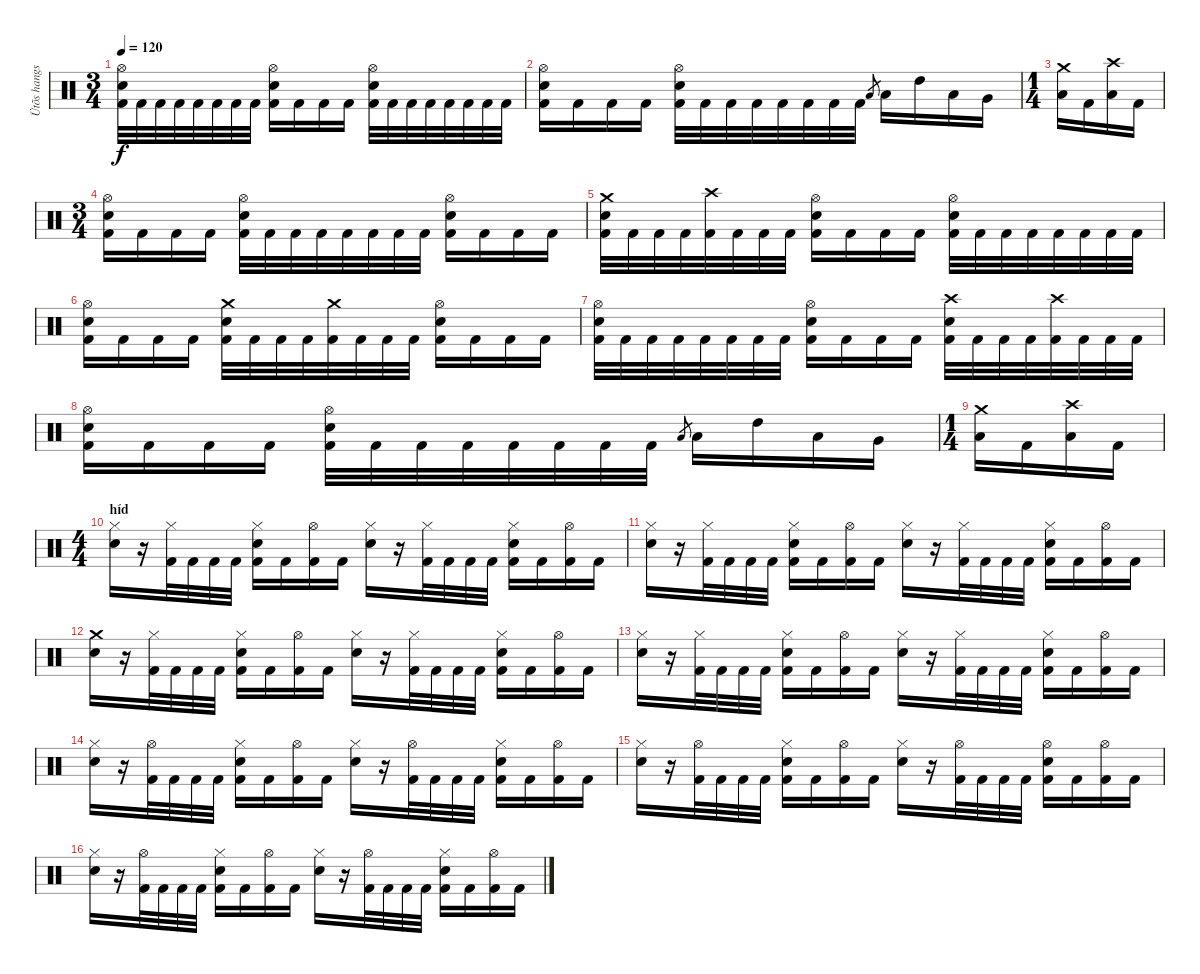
\track ("Ütõs hangszer" "Ütõs hangs") {instrument percussion}
\staff {score}
\articulation defaults
\ts (3 4)
\tempo 120
\clef neutral
\ks c
("Hi-Hat (open)" "Electric Snare (hit)" "Kick (hit) 2").32{dy f} "Kick (hit) 2".32 "Kick (hit) 2".32 "Kick (hit) 2".32 "Kick (hit) 2".32 "Kick (hit) 2".32 "Kick (hit) 2".32 "Kick (hit) 2".32 ("Hi-Hat (open)" "Electric Snare (hit)" "Kick (hit) 2").16 "Kick (hit) 2".16 "Kick (hit) 2".16 "Kick (hit) 2".16 ("Hi-Hat (open)" "Electric Snare (hit)" "Kick (hit) 2").32 "Kick (hit) 2".32 "Kick (hit) 2".32 "Kick (hit) 2".32 "Kick (hit) 2".32 "Kick (hit) 2".32 "Kick (hit) 2".32 "Kick (hit) 2".32 |
("Hi-Hat (open)" "Electric Snare (hit)" "Kick (hit) 2").16 "Kick (hit) 2".16 "Kick (hit) 2".16 "Kick (hit) 2".16 ("Hi-Hat (open)" "Electric Snare (hit)" "Kick (hit) 2").32 "Kick (hit) 2".32 "Kick (hit) 2".32 "Kick (hit) 2".32 "Kick (hit) 2".32 "Kick (hit) 2".32 "Kick (hit) 2".32 "Kick (hit) 2".32 "Low Tom (hit)".8{gr} "Low Tom (hit)".16 "High Tom (hit)".16 "Low Tom (hit)".16 "Very Low Tom (hit)".16 |
\ts (1 4)
("Crash medium (hit)" "Low Floor Tom (hit)").16 "Kick (hit) 2".16 ("Crash high (hit)" "Low Floor Tom (hit)").16 "Kick (hit) 2".16 |
\ts (3 4)
("Hi-Hat (open)" "Electric Snare (hit)" "Kick (hit) 2").16 "Kick (hit) 2".16 "Kick (hit) 2".16 "Kick (hit) 2".16 ("Hi-Hat (open)" "Electric Snare (hit)" "Kick (hit) 2").32 "Kick (hit) 2".32 "Kick (hit) 2".32 "Kick (hit) 2".32 "Kick (hit) 2".32 "Kick (hit) 2".32 "Kick (hit) 2".32 "Kick (hit) 2".32 ("Hi-Hat (open)" "Electric Snare (hit)" "Kick (hit) 2").16 "Kick (hit) 2".16 "Kick (hit) 2".16 "Kick (hit) 2".16 |
("Crash medium (hit)" "Electric Snare (hit)" "Kick (hit) 2").32 "Kick (hit) 2".32 "Kick (hit) 2".32 "Kick (hit) 2".32 ("Crash high (hit)" "Kick (hit) 2").32 "Kick (hit) 2".32 "Kick (hit) 2".32 "Kick (hit) 2".32 ("Hi-Hat (open)" "Electric Snare (hit)" "Kick (hit) 2").16 "Kick (hit) 2".16 "Kick (hit) 2".16 "Kick (hit) 2".16 ("Hi-Hat (open)" "Electric Snare (hit)" "Kick (hit) 2").32 "Kick (hit) 2".32 "Kick (hit) 2".32 "Kick (hit) 2".32 "Kick (hit) 2".32 "Kick (hit) 2".32 "Kick (hit) 2".32 "Kick (hit) 2".32 |
("Hi-Hat (open)" "Electric Snare (hit)" "Kick (hit) 2").16 "Kick (hit) 2".16 "Kick (hit) 2".16 "Kick (hit) 2".16 ("Crash medium (hit)" "Electric Snare (hit)" "Kick (hit) 2").32 "Kick (hit) 2".32 "Kick (hit) 2".32 "Kick (hit) 2".32 ("Crash medium (hit)" "Kick (hit) 2").32 "Kick (hit) 2".32 "Kick (hit) 2".32 "Kick (hit) 2".32 ("Hi-Hat (open)" "Electric Snare (hit)" "Kick (hit) 2").16 "Kick (hit) 2".16 "Kick (hit) 2".16 "Kick (hit) 2".16 |
("Hi-Hat (open)" "Electric Snare (hit)" "Kick (hit) 2").32 "Kick (hit) 2".32 "Kick (hit) 2".32 "Kick (hit) 2".32 "Kick (hit) 2".32 "Kick (hit) 2".32 "Kick (hit) 2".32 "Kick (hit) 2".32 ("Hi-Hat (open)" "Electric Snare (hit)" "Kick (hit) 2").16 "Kick (hit) 2".16 "Kick (hit) 2".16 "Kick (hit) 2".16 ("Crash high (hit)" "Electric Snare (hit)" "Kick (hit) 2").32 "Kick (hit) 2".32 "Kick (hit) 2".32 "Kick (hit) 2".32 ("Crash high (hit)" "Kick (hit) 2").32 "Kick (hit) 2".32 "Kick (hit) 2".32 "Kick (hit) 2".32 |
("Hi-Hat (open)" "Electric Snare (hit)" "Kick (hit) 2").16 "Kick (hit) 2".16 "Kick (hit) 2".16 "Kick (hit) 2".16 ("Hi-Hat (open)" "Electric Snare (hit)" "Kick (hit) 2").32 "Kick (hit) 2".32 "Kick (hit) 2".32 "Kick (hit) 2".32 "Kick (hit) 2".32 "Kick (hit) 2".32 "Kick (hit) 2".32 "Kick (hit) 2".32 "Low Tom (hit)".8{gr} "Low Tom (hit)".16 "High Tom (hit)".16 "Low Tom (hit)".16 "Very Low Tom (hit)".16 |
\ts (1 4)
("Crash medium (hit)" "Low Floor Tom (hit)").16 "Kick (hit) 2".16 ("Crash high (hit)" "Low Floor Tom (hit)").16 "Kick (hit) 2".16 |
\ts (4 4)
\section ("" "híd")
("Hi-Hat (closed)" "Electric Snare (hit)").16 r.16 ("Hi-Hat (closed)" "Kick (hit) 2").32 "Kick (hit) 2".32 "Kick (hit) 2".32 "Kick (hit) 2".32 ("Hi-Hat (closed)" "Electric Snare (hit)" "Kick (hit) 2").16 "Kick (hit) 2".16 ("Hi-Hat (open)" "Kick (hit) 2").16 "Kick (hit) 2".16 ("Hi-Hat (closed)" "Electric Snare (hit)").16 r.16 ("Hi-Hat (closed)" "Kick (hit) 2").32 "Kick (hit) 2".32 "Kick (hit) 2".32 "Kick (hit) 2".32 ("Hi-Hat (closed)" "Electric Snare (hit)" "Kick (hit) 2").16 "Kick (hit) 2".16 ("Hi-Hat (open)" "Kick (hit) 2").16 "Kick (hit) 2".16 |
("Hi-Hat (closed)" "Electric Snare (hit)").16 r.16 ("Hi-Hat (closed)" "Kick (hit) 2").32 "Kick (hit) 2".32 "Kick (hit) 2".32 "Kick (hit) 2".32 ("Hi-Hat (closed)" "Electric Snare (hit)" "Kick (hit) 2").16 "Kick (hit) 2".16 ("Hi-Hat (open)" "Kick (hit) 2").16 "Kick (hit) 2".16 ("Hi-Hat (closed)" "Electric Snare (hit)").16 r.16 ("Hi-Hat (closed)" "Kick (hit) 2").32 "Kick (hit) 2".32 "Kick (hit) 2".32 "Kick (hit) 2".32 ("Hi-Hat (closed)" "Electric Snare (hit)" "Kick (hit) 2").16 "Kick (hit) 2".16 ("Hi-Hat (open)" "Kick (hit) 2").16 "Kick (hit) 2".16 |
("Crash medium (hit)" "Electric Snare (hit)").16 r.16 ("Hi-Hat (closed)" "Kick (hit) 2").32 "Kick (hit) 2".32 "Kick (hit) 2".32 "Kick (hit) 2".32 ("Hi-Hat (closed)" "Electric Snare (hit)" "Kick (hit) 2").16 "Kick (hit) 2".16 ("Hi-Hat (open)" "Kick (hit) 2").16 "Kick (hit) 2".16 ("Hi-Hat (closed)" "Electric Snare (hit)").16 r.16 ("Hi-Hat (closed)" "Kick (hit) 2").32 "Kick (hit) 2".32 "Kick (hit) 2".32 "Kick (hit) 2".32 ("Hi-Hat (closed)" "Electric Snare (hit)" "Kick (hit) 2").16 "Kick (hit) 2".16 ("Hi-Hat (open)" "Kick (hit) 2").16 "Kick (hit) 2".16 |
("Hi-Hat (closed)" "Electric Snare (hit)").16 r.16 ("Hi-Hat (closed)" "Kick (hit) 2").32 "Kick (hit) 2".32 "Kick (hit) 2".32 "Kick (hit) 2".32 ("Hi-Hat (closed)" "Electric Snare (hit)" "Kick (hit) 2").16 "Kick (hit) 2".16 ("Hi-Hat (open)" "Kick (hit) 2").16 "Kick (hit) 2".16 ("Hi-Hat (closed)" "Electric Snare (hit)").16 r.16 ("Hi-Hat (closed)" "Kick (hit) 2").32 "Kick (hit) 2".32 "Kick (hit) 2".32 "Kick (hit) 2".32 ("Hi-Hat (closed)" "Electric Snare (hit)" "Kick (hit) 2").16 "Kick (hit) 2".16 ("Hi-Hat (open)" "Kick (hit) 2").16 "Kick (hit) 2".16 |
("Hi-Hat (closed)" "Electric Snare (hit)").16 r.16 ("Hi-Hat (open)" "Kick (hit) 2").32 "Kick (hit) 2".32 "Kick (hit) 2".32 "Kick (hit) 2".32 ("Hi-Hat (closed)" "Electric Snare (hit)" "Kick (hit) 2").16 "Kick (hit) 2".16 ("Hi-Hat (open)" "Kick (hit) 2").16 "Kick (hit) 2".16 ("Hi-Hat (closed)" "Electric Snare (hit)").16 r.16 ("Hi-Hat (open)" "Kick (hit) 2").32 "Kick (hit) 2".32 "Kick (hit) 2".32 "Kick (hit) 2".32 ("Hi-Hat (closed)" "Electric Snare (hit)" "Kick (hit) 2").16 "Kick (hit) 2".16 ("Hi-Hat (open)" "Kick (hit) 2").16 "Kick (hit) 2".16 |
("Hi-Hat (closed)" "Electric Snare (hit)").16 r.16 ("Hi-Hat (open)" "Kick (hit) 2").32 "Kick (hit) 2".32 "Kick (hit) 2".32 "Kick (hit) 2".32 ("Hi-Hat (closed)" "Electric Snare (hit)" "Kick (hit) 2").16 "Kick (hit) 2".16 ("Hi-Hat (open)" "Kick (hit) 2").16 "Kick (hit) 2".16 ("Hi-Hat (closed)" "Electric Snare (hit)").16 r.16 ("Hi-Hat (open)" "Kick (hit) 2").32 "Kick (hit) 2".32 "Kick (hit) 2".32 "Kick (hit) 2".32 ("Hi-Hat (open)" "Electric Snare (hit)" "Kick (hit) 2").16 "Kick (hit) 2".16 ("Hi-Hat (open)" "Kick (hit) 2").16 "Kick (hit) 2".16 |
("Hi-Hat (closed)" "Electric Snare (hit)").16 r.16 ("Hi-Hat (open)" "Kick (hit) 2").32 "Kick (hit) 2".32 "Kick (hit) 2".32 "Kick (hit) 2".32 ("Hi-Hat (closed)" "Electric Snare (hit)" "Kick (hit) 2").16 "Kick (hit) 2".16 ("Hi-Hat (open)" "Kick (hit) 2").16 "Kick (hit) 2".16 ("Hi-Hat (closed)" "Electric Snare (hit)").16 r.16 ("Hi-Hat (open)" "Kick (hit) 2").32 "Kick (hit) 2".32 "Kick (hit) 2".32 "Kick (hit) 2".32 ("Hi-Hat (closed)" "Electric Snare (hit)" "Kick (hit) 2").16 "Kick (hit) 2".16 ("Hi-Hat (open)" "Kick (hit) 2").16 "Kick (hit) 2".16
